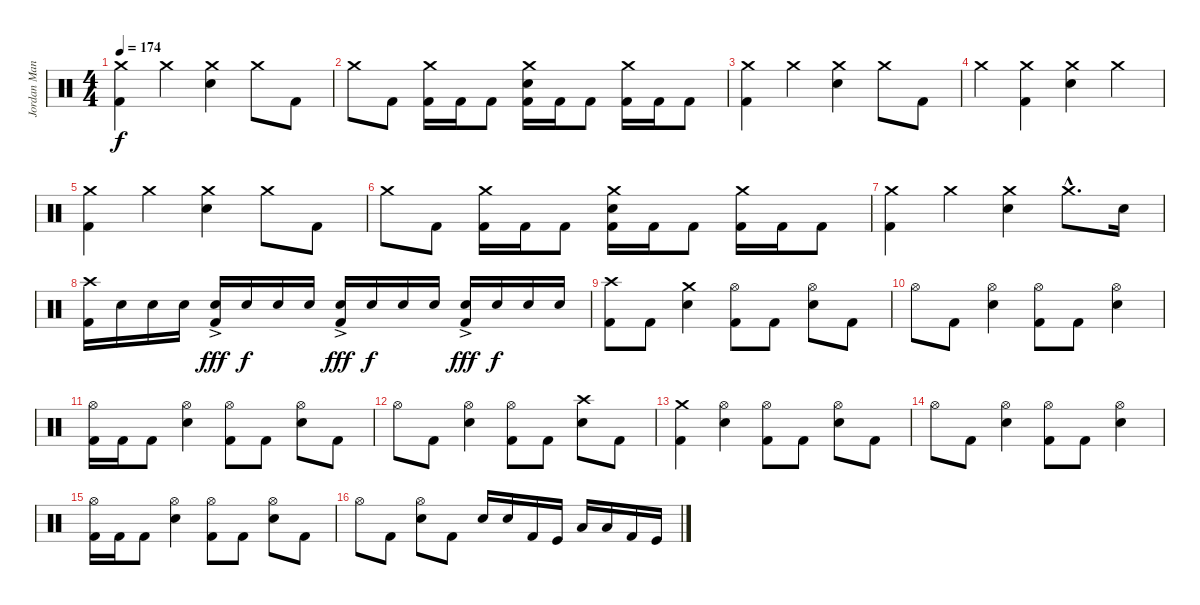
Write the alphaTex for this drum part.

\track ("Jordan Manchino (Drums)" "Jordan Man") {instrument percussion}
\staff {score}
\articulation defaults
\ts (4 4)
\tempo 174
\clef neutral
\ks c
("Crash medium (hit)" "Kick (hit) 2").4{dy f} "Crash medium (hit)".4 ("Crash medium (hit)" "Snare (hit) 2").4 "Crash medium (hit)".8 "Kick (hit) 2".8 |
"Crash medium (hit)".8 "Kick (hit) 2".8 ("Crash medium (hit)" "Kick (hit) 2").16 "Kick (hit) 2".16 "Kick (hit) 2".8 ("Kick (hit) 2" "Crash medium (hit)" "Snare (hit) 2").16 "Kick (hit) 2".16 "Kick (hit) 2".8 ("Crash medium (hit)" "Kick (hit) 2").16 "Kick (hit) 2".16 "Kick (hit) 2".8 |
("Crash medium (hit)" "Kick (hit) 2").4 "Crash medium (hit)".4 ("Crash medium (hit)" "Snare (hit) 2").4 "Crash medium (hit)".8 "Kick (hit) 2".8 |
"Crash medium (hit)".4 ("Crash medium (hit)" "Kick (hit) 2").4 ("Crash medium (hit)" "Snare (hit) 2").4 "Crash medium (hit)".4 |
("Crash medium (hit)" "Kick (hit) 2").4 "Crash medium (hit)".4 ("Crash medium (hit)" "Snare (hit) 2").4 "Crash medium (hit)".8 "Kick (hit) 2".8 |
"Crash medium (hit)".8 "Kick (hit) 2".8 ("Crash medium (hit)" "Kick (hit) 2").16 "Kick (hit) 2".16 "Kick (hit) 2".8 ("Kick (hit) 2" "Crash medium (hit)" "Snare (hit) 2").16 "Kick (hit) 2".16 "Kick (hit) 2".8 ("Crash medium (hit)" "Kick (hit) 2").16 "Kick (hit) 2".16 "Kick (hit) 2".8 |
("Crash medium (hit)" "Kick (hit) 2").4 "Crash medium (hit)".4 ("Crash medium (hit)" "Snare (hit) 2").4 "Crash medium (hit)"{hac}.8{d} "Snare (hit) 2".16 |
("Kick (hit) 2" "Crash high (hit)").16 "Snare (hit) 2".16 "Snare (hit) 2".16 "Snare (hit) 2".16 ("Kick (hit) 2"{ac} "Snare (hit) 2").16{dy fff} "Snare (hit) 2".16{dy f} "Snare (hit) 2".16 "Snare (hit) 2".16 ("Kick (hit) 2"{ac} "Snare (hit) 2").16{dy fff} "Snare (hit) 2".16{dy f} "Snare (hit) 2".16 "Snare (hit) 2".16 ("Kick (hit) 2"{ac} "Snare (hit) 2").16{dy fff} "Snare (hit) 2".16{dy f} "Snare (hit) 2".16 "Snare (hit) 2".16 |
("Crash high (hit)" "Kick (hit) 2").8 "Kick (hit) 2".8 ("Crash medium (hit)" "Snare (hit) 2").4 ("Hi-Hat (open)" "Kick (hit) 2").8 "Kick (hit) 2".8 ("Hi-Hat (open)" "Snare (hit) 2").8 "Kick (hit) 2".8 |
"Hi-Hat (open)".8 "Kick (hit) 2".8 ("Hi-Hat (open)" "Snare (hit) 2").4 ("Hi-Hat (open)" "Kick (hit) 2").8 "Kick (hit) 2".8 ("Hi-Hat (open)" "Snare (hit) 2").4 |
("Hi-Hat (open)" "Kick (hit) 2").16 "Kick (hit) 2".16 "Kick (hit) 2".8 ("Hi-Hat (open)" "Snare (hit) 2").4 ("Hi-Hat (open)" "Kick (hit) 2").8 "Kick (hit) 2".8 ("Hi-Hat (open)" "Snare (hit) 2").8 "Kick (hit) 2".8 |
"Hi-Hat (open)".8 "Kick (hit) 2".8 ("Hi-Hat (open)" "Snare (hit) 2").4 ("Hi-Hat (open)" "Kick (hit) 2").8 "Kick (hit) 2".8 ("Crash high (hit)" "Snare (hit) 2").8 "Kick (hit) 2".8 |
("Crash medium (hit)" "Kick (hit) 2").4 ("Hi-Hat (open)" "Snare (hit) 2").4 ("Hi-Hat (open)" "Kick (hit) 2").8 "Kick (hit) 2".8 ("Hi-Hat (open)" "Snare (hit) 2").8 "Kick (hit) 2".8 |
"Hi-Hat (open)".8 "Kick (hit) 2".8 ("Hi-Hat (open)" "Snare (hit) 2").4 ("Hi-Hat (open)" "Kick (hit) 2").8 "Kick (hit) 2".8 ("Hi-Hat (open)" "Snare (hit) 2").4 |
("Hi-Hat (open)" "Kick (hit) 2").16 "Kick (hit) 2".16 "Kick (hit) 2".8 ("Hi-Hat (open)" "Snare (hit) 2").4 ("Hi-Hat (open)" "Kick (hit) 2").8 "Kick (hit) 2".8 ("Hi-Hat (open)" "Snare (hit) 2").8 "Kick (hit) 2".8 |
"Hi-Hat (open)".8 "Kick (hit) 2".8 ("Hi-Hat (open)" "Snare (hit) 2").8 "Kick (hit) 2".8 "Snare (hit) 2".16 "Snare (hit) 2".16 "Kick (hit) 2".16 "Kick (hit)".16 "Low Tom (hit)".16 "Low Floor Tom (hit)".16 "Kick (hit) 2".16 "Kick (hit)".16
